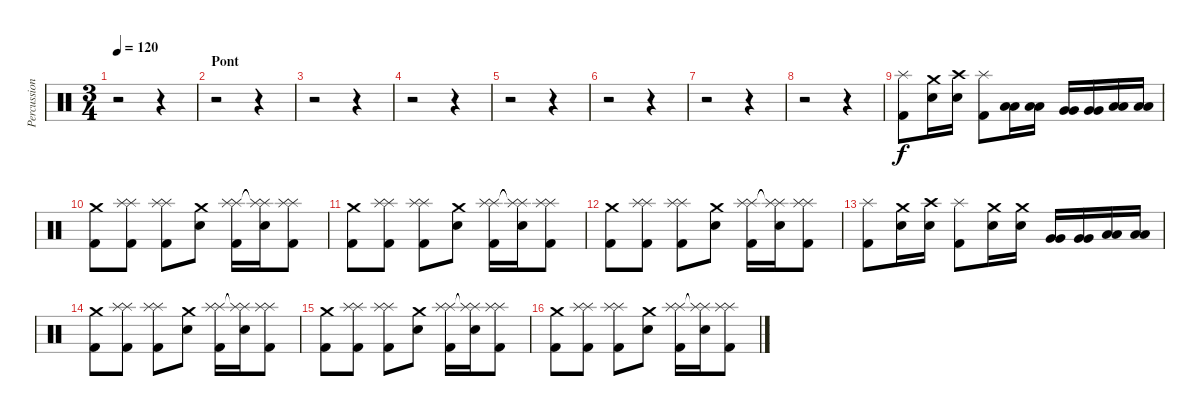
\track ("Percussions" "Percussion") {instrument percussion}
\staff {score}
\articulation defaults
\ts (3 4)
\tempo 120
\clef neutral
\ks c
r.2{dy fff} r.4 |
\section ("" "Pont")
r.2 r.4 |
r.2 r.4 |
r.2 r.4 |
r.2 r.4 |
r.2 r.4 |
r.2 r.4 |
r.2 r.4 |
("Splash (hit)" "Kick (hit) 2").8{dy f volume 16} ("Crash medium (hit)" "Snare (hit) 2").16 ("Crash high (hit)" "Snare (hit) 2").16 ("Splash (hit)" "Kick (hit) 2").8 ("Low Tom (hit)" "Low Tom (hit)").16 ("Low Tom (hit)" "Low Tom (hit)").16 ("Very Low Tom (hit)" "Very Low Tom (hit)").16 ("Very Low Tom (hit)" "Very Low Tom (hit)").16 ("Low Floor Tom (hit)" "Low Floor Tom (hit)").16 ("Low Floor Tom (hit)" "Low Floor Tom (hit)").16 |
("Crash medium (hit)" "Kick (hit) 2").8 ("Splash (hit)" "Splash (hit)" "Kick (hit) 2").8 ("Splash (hit)" "Splash (hit)" "Kick (hit) 2").8 ("Crash medium (hit)" "Snare (hit) 2").8 ("Splash (hit)" "Splash (hit)" "Kick (hit) 2").16 ("Splash (hit)"{t} "Splash (hit)"{t} "Snare (hit) 2").16 ("Splash (hit)" "Splash (hit)" "Kick (hit) 2").8 |
("Crash medium (hit)" "Kick (hit) 2").8 ("Splash (hit)" "Splash (hit)" "Kick (hit) 2").8 ("Splash (hit)" "Splash (hit)" "Kick (hit) 2").8 ("Crash medium (hit)" "Snare (hit) 2").8 ("Splash (hit)" "Splash (hit)" "Kick (hit) 2").16 ("Splash (hit)"{t} "Splash (hit)"{t} "Snare (hit) 2").16 ("Splash (hit)" "Splash (hit)" "Kick (hit) 2").8 |
("Crash medium (hit)" "Kick (hit) 2").8 ("Splash (hit)" "Splash (hit)" "Kick (hit) 2").8 ("Splash (hit)" "Splash (hit)" "Kick (hit) 2").8 ("Crash medium (hit)" "Snare (hit) 2").8 ("Splash (hit)" "Splash (hit)" "Kick (hit) 2").16 ("Splash (hit)"{t} "Splash (hit)"{t} "Snare (hit) 2").16 ("Splash (hit)" "Splash (hit)" "Kick (hit) 2").8 |
("Splash (hit)" "Kick (hit) 2").8 ("Crash medium (hit)" "Snare (hit) 2").16 ("Crash high (hit)" "Snare (hit) 2").16 ("Splash (hit)" "Kick (hit) 2").8 ("Crash medium (hit)" "Snare (hit) 2").16 ("Crash medium (hit)" "Snare (hit) 2").16 ("Very Low Tom (hit)" "Very Low Tom (hit)").16 ("Very Low Tom (hit)" "Very Low Tom (hit)").16 ("Low Floor Tom (hit)" "Low Floor Tom (hit)").16 ("Low Floor Tom (hit)" "Low Floor Tom (hit)").16 |
("Crash medium (hit)" "Kick (hit) 2").8 ("Splash (hit)" "Splash (hit)" "Kick (hit) 2").8 ("Splash (hit)" "Splash (hit)" "Kick (hit) 2").8 ("Crash medium (hit)" "Snare (hit) 2").8 ("Splash (hit)" "Splash (hit)" "Kick (hit) 2").16 ("Splash (hit)"{t} "Splash (hit)"{t} "Snare (hit) 2").16 ("Splash (hit)" "Splash (hit)" "Kick (hit) 2").8 |
("Crash medium (hit)" "Kick (hit) 2").8 ("Splash (hit)" "Splash (hit)" "Kick (hit) 2").8 ("Splash (hit)" "Splash (hit)" "Kick (hit) 2").8 ("Crash medium (hit)" "Snare (hit) 2").8 ("Splash (hit)" "Splash (hit)" "Kick (hit) 2").16 ("Splash (hit)"{t} "Splash (hit)"{t} "Snare (hit) 2").16 ("Splash (hit)" "Splash (hit)" "Kick (hit) 2").8 |
("Crash medium (hit)" "Kick (hit) 2").8 ("Splash (hit)" "Splash (hit)" "Kick (hit) 2").8 ("Splash (hit)" "Splash (hit)" "Kick (hit) 2").8 ("Crash medium (hit)" "Snare (hit) 2").8 ("Splash (hit)" "Splash (hit)" "Kick (hit) 2").16 ("Splash (hit)"{t} "Splash (hit)"{t} "Snare (hit) 2").16 ("Splash (hit)" "Splash (hit)" "Kick (hit) 2").8
